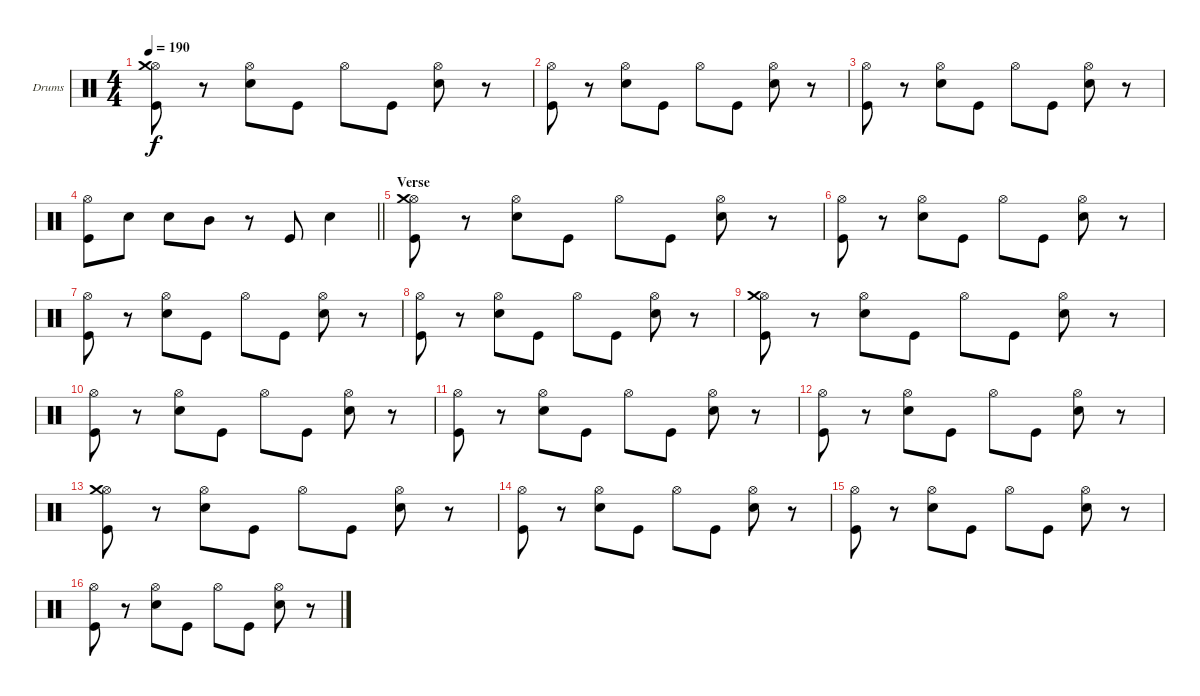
\bracketExtendMode groupsimilarinstruments
\firstSystemTrackNameOrientation horizontal
\otherSystemsTrackNameOrientation horizontal
\track ("Drumkit" "Drums") {instrument percussion}
\staff {score}
\articulation defaults
\ts (4 4)
\tempo 190
\clef neutral
\ks c
("Hi-Hat (open)" "Crash medium (hit)" "Kick (hit)").8{dy f} r.8 ("Hi-Hat (open)" "Snare (hit) 2").8 "Kick (hit)".8 "Hi-Hat (open)".8 "Kick (hit)".8 ("Hi-Hat (open)" "Snare (hit) 2").8 r.8 |
("Hi-Hat (open)" "Kick (hit)").8 r.8 ("Hi-Hat (open)" "Snare (hit) 2").8 "Kick (hit)".8 "Hi-Hat (open)".8 "Kick (hit)".8 ("Hi-Hat (open)" "Snare (hit) 2").8 r.8 |
("Hi-Hat (open)" "Kick (hit)").8 r.8 ("Hi-Hat (open)" "Snare (hit) 2").8 "Kick (hit)".8 "Hi-Hat (open)".8 "Kick (hit)".8 ("Hi-Hat (open)" "Snare (hit) 2").8 r.8 |
\barLineRight lightlight
("Kick (hit)" "Hi-Hat (open)").8 "Snare (hit) 2".8 "Snare (hit) 2".8 "Mid Tom (hit)".8 r.8 "Kick (hit)".8 "Snare (hit) 2".4 |
\section ("" "Verse")
("Hi-Hat (open)" "Crash medium (hit)" "Kick (hit)").8 r.8 ("Hi-Hat (open)" "Snare (hit) 2").8 "Kick (hit)".8 "Hi-Hat (open)".8 "Kick (hit)".8 ("Hi-Hat (open)" "Snare (hit) 2").8 r.8 |
("Hi-Hat (open)" "Kick (hit)").8 r.8 ("Hi-Hat (open)" "Snare (hit) 2").8 "Kick (hit)".8 "Hi-Hat (open)".8 "Kick (hit)".8 ("Hi-Hat (open)" "Snare (hit) 2").8 r.8 |
("Hi-Hat (open)" "Kick (hit)").8 r.8 ("Hi-Hat (open)" "Snare (hit) 2").8 "Kick (hit)".8 "Hi-Hat (open)".8 "Kick (hit)".8 ("Hi-Hat (open)" "Snare (hit) 2").8 r.8 |
("Hi-Hat (open)" "Kick (hit)").8 r.8 ("Hi-Hat (open)" "Snare (hit) 2").8 "Kick (hit)".8 "Hi-Hat (open)".8 "Kick (hit)".8 ("Hi-Hat (open)" "Snare (hit) 2").8 r.8 |
("Hi-Hat (open)" "Crash medium (hit)" "Kick (hit)").8 r.8 ("Hi-Hat (open)" "Snare (hit) 2").8 "Kick (hit)".8 "Hi-Hat (open)".8 "Kick (hit)".8 ("Hi-Hat (open)" "Snare (hit) 2").8 r.8 |
("Hi-Hat (open)" "Kick (hit)").8 r.8 ("Hi-Hat (open)" "Snare (hit) 2").8 "Kick (hit)".8 "Hi-Hat (open)".8 "Kick (hit)".8 ("Hi-Hat (open)" "Snare (hit) 2").8 r.8 |
("Hi-Hat (open)" "Kick (hit)").8 r.8 ("Hi-Hat (open)" "Snare (hit) 2").8 "Kick (hit)".8 "Hi-Hat (open)".8 "Kick (hit)".8 ("Hi-Hat (open)" "Snare (hit) 2").8 r.8 |
("Hi-Hat (open)" "Kick (hit)").8 r.8 ("Hi-Hat (open)" "Snare (hit) 2").8 "Kick (hit)".8 "Hi-Hat (open)".8 "Kick (hit)".8 ("Hi-Hat (open)" "Snare (hit) 2").8 r.8 |
("Hi-Hat (open)" "Crash medium (hit)" "Kick (hit)").8 r.8 ("Hi-Hat (open)" "Snare (hit) 2").8 "Kick (hit)".8 "Hi-Hat (open)".8 "Kick (hit)".8 ("Hi-Hat (open)" "Snare (hit) 2").8 r.8 |
("Hi-Hat (open)" "Kick (hit)").8 r.8 ("Hi-Hat (open)" "Snare (hit) 2").8 "Kick (hit)".8 "Hi-Hat (open)".8 "Kick (hit)".8 ("Hi-Hat (open)" "Snare (hit) 2").8 r.8 |
("Hi-Hat (open)" "Kick (hit)").8 r.8 ("Hi-Hat (open)" "Snare (hit) 2").8 "Kick (hit)".8 "Hi-Hat (open)".8 "Kick (hit)".8 ("Hi-Hat (open)" "Snare (hit) 2").8 r.8 |
("Hi-Hat (open)" "Kick (hit)").8 r.8 ("Hi-Hat (open)" "Snare (hit) 2").8 "Kick (hit)".8 "Hi-Hat (open)".8 "Kick (hit)".8 ("Hi-Hat (open)" "Snare (hit) 2").8 r.8
